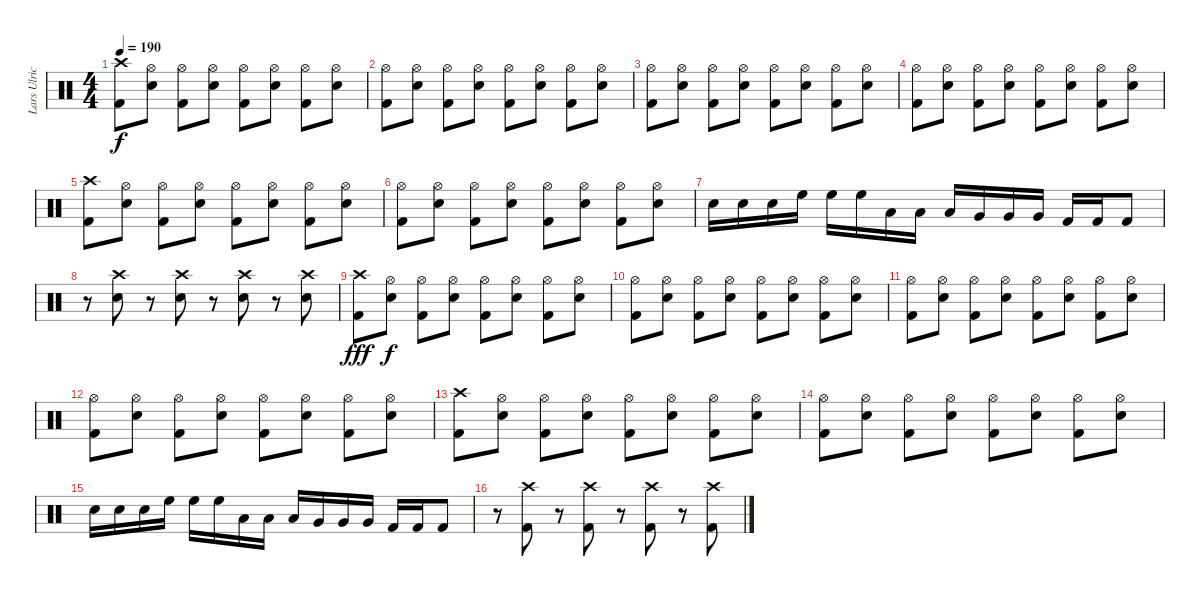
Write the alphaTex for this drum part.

\track ("Lars Ulrich" "Lars Ulric") {instrument percussion}
\staff {score}
\articulation defaults
\ts (4 4)
\tempo 190
\clef neutral
\ks c
("Crash high (hit)" "Kick (hit) 2").8{dy f} ("Hi-Hat (open)" "Snare (hit) 2").8 ("Hi-Hat (open)" "Kick (hit) 2").8 ("Hi-Hat (open)" "Snare (hit) 2").8 ("Hi-Hat (open)" "Kick (hit) 2").8 ("Hi-Hat (open)" "Snare (hit) 2").8 ("Hi-Hat (open)" "Kick (hit) 2").8 ("Hi-Hat (open)" "Snare (hit) 2").8 |
("Hi-Hat (open)" "Kick (hit) 2").8 ("Hi-Hat (open)" "Snare (hit) 2").8 ("Hi-Hat (open)" "Kick (hit) 2").8 ("Hi-Hat (open)" "Snare (hit) 2").8 ("Hi-Hat (open)" "Kick (hit) 2").8 ("Hi-Hat (open)" "Snare (hit) 2").8 ("Hi-Hat (open)" "Kick (hit) 2").8 ("Hi-Hat (open)" "Snare (hit) 2").8 |
("Hi-Hat (open)" "Kick (hit) 2").8 ("Hi-Hat (open)" "Snare (hit) 2").8 ("Hi-Hat (open)" "Kick (hit) 2").8 ("Hi-Hat (open)" "Snare (hit) 2").8 ("Hi-Hat (open)" "Kick (hit) 2").8 ("Hi-Hat (open)" "Snare (hit) 2").8 ("Hi-Hat (open)" "Kick (hit) 2").8 ("Hi-Hat (open)" "Snare (hit) 2").8 |
("Hi-Hat (open)" "Kick (hit) 2").8 ("Hi-Hat (open)" "Snare (hit) 2").8 ("Hi-Hat (open)" "Kick (hit) 2").8 ("Hi-Hat (open)" "Snare (hit) 2").8 ("Hi-Hat (open)" "Kick (hit) 2").8 ("Hi-Hat (open)" "Snare (hit) 2").8 ("Hi-Hat (open)" "Kick (hit) 2").8 ("Hi-Hat (open)" "Snare (hit) 2").8 |
("Crash high (hit)" "Kick (hit) 2").8 ("Hi-Hat (open)" "Snare (hit) 2").8 ("Hi-Hat (open)" "Kick (hit) 2").8 ("Hi-Hat (open)" "Snare (hit) 2").8 ("Hi-Hat (open)" "Kick (hit) 2").8 ("Hi-Hat (open)" "Snare (hit) 2").8 ("Hi-Hat (open)" "Kick (hit) 2").8 ("Hi-Hat (open)" "Snare (hit) 2").8 |
("Hi-Hat (open)" "Kick (hit) 2").8 ("Hi-Hat (open)" "Snare (hit) 2").8 ("Hi-Hat (open)" "Kick (hit) 2").8 ("Hi-Hat (open)" "Snare (hit) 2").8 ("Hi-Hat (open)" "Kick (hit) 2").8 ("Hi-Hat (open)" "Snare (hit) 2").8 ("Hi-Hat (open)" "Kick (hit) 2").8 ("Hi-Hat (open)" "Snare (hit) 2").8 |
"Snare (hit) 2".16 "Snare (hit) 2".16 "Snare (hit) 2".16 "High Floor Tom (hit)".16 "High Floor Tom (hit)".16 "High Floor Tom (hit)".16 "Low Tom (hit)".16 "Low Tom (hit)".16 "Low Tom (hit)".16 "Very Low Tom (hit)".16 "Very Low Tom (hit)".16 "Very Low Tom (hit)".16 "Kick (hit) 2".16 "Kick (hit) 2".16 "Kick (hit) 2".8 |
r.8 ("Crash high (hit)" "Snare (hit) 2").8 r.8 ("Crash high (hit)" "Snare (hit) 2").8 r.8 ("Crash high (hit)" "Snare (hit) 2").8 r.8 ("Crash high (hit)" "Snare (hit) 2").8 |
("Crash high (hit)" "Kick (hit) 2").8{dy fff} ("Hi-Hat (open)" "Snare (hit) 2").8{dy f} ("Hi-Hat (open)" "Kick (hit) 2").8 ("Hi-Hat (open)" "Snare (hit) 2").8 ("Hi-Hat (open)" "Kick (hit) 2").8 ("Hi-Hat (open)" "Snare (hit) 2").8 ("Hi-Hat (open)" "Kick (hit) 2").8 ("Hi-Hat (open)" "Snare (hit) 2").8 |
("Hi-Hat (open)" "Kick (hit) 2").8 ("Hi-Hat (open)" "Snare (hit) 2").8 ("Hi-Hat (open)" "Kick (hit) 2").8 ("Hi-Hat (open)" "Snare (hit) 2").8 ("Hi-Hat (open)" "Kick (hit) 2").8 ("Hi-Hat (open)" "Snare (hit) 2").8 ("Hi-Hat (open)" "Kick (hit) 2").8 ("Hi-Hat (open)" "Snare (hit) 2").8 |
("Hi-Hat (open)" "Kick (hit) 2").8 ("Hi-Hat (open)" "Snare (hit) 2").8 ("Hi-Hat (open)" "Kick (hit) 2").8 ("Hi-Hat (open)" "Snare (hit) 2").8 ("Hi-Hat (open)" "Kick (hit) 2").8 ("Hi-Hat (open)" "Snare (hit) 2").8 ("Hi-Hat (open)" "Kick (hit) 2").8 ("Hi-Hat (open)" "Snare (hit) 2").8 |
("Hi-Hat (open)" "Kick (hit) 2").8 ("Hi-Hat (open)" "Snare (hit) 2").8 ("Hi-Hat (open)" "Kick (hit) 2").8 ("Hi-Hat (open)" "Snare (hit) 2").8 ("Hi-Hat (open)" "Kick (hit) 2").8 ("Hi-Hat (open)" "Snare (hit) 2").8 ("Hi-Hat (open)" "Kick (hit) 2").8 ("Hi-Hat (open)" "Snare (hit) 2").8 |
("Crash high (hit)" "Kick (hit) 2").8 ("Hi-Hat (open)" "Snare (hit) 2").8 ("Hi-Hat (open)" "Kick (hit) 2").8 ("Hi-Hat (open)" "Snare (hit) 2").8 ("Hi-Hat (open)" "Kick (hit) 2").8 ("Hi-Hat (open)" "Snare (hit) 2").8 ("Hi-Hat (open)" "Kick (hit) 2").8 ("Hi-Hat (open)" "Snare (hit) 2").8 |
("Hi-Hat (open)" "Kick (hit) 2").8 ("Hi-Hat (open)" "Snare (hit) 2").8 ("Hi-Hat (open)" "Kick (hit) 2").8 ("Hi-Hat (open)" "Snare (hit) 2").8 ("Hi-Hat (open)" "Kick (hit) 2").8 ("Hi-Hat (open)" "Snare (hit) 2").8 ("Hi-Hat (open)" "Kick (hit) 2").8 ("Hi-Hat (open)" "Snare (hit) 2").8 |
"Snare (hit) 2".16 "Snare (hit) 2".16 "Snare (hit) 2".16 "High Floor Tom (hit)".16 "High Floor Tom (hit)".16 "High Floor Tom (hit)".16 "Low Tom (hit)".16 "Low Tom (hit)".16 "Low Tom (hit)".16 "Very Low Tom (hit)".16 "Very Low Tom (hit)".16 "Very Low Tom (hit)".16 "Kick (hit) 2".16 "Kick (hit) 2".16 "Kick (hit) 2".8 |
r.8 ("Crash high (hit)" "Kick (hit) 2").8 r.8 ("Crash high (hit)" "Kick (hit) 2").8 r.8 ("Crash high (hit)" "Kick (hit) 2").8 r.8 ("Crash high (hit)" "Kick (hit) 2").8
